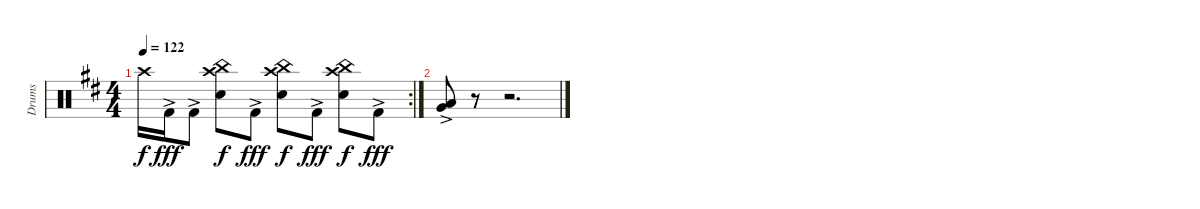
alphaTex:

\track ("Drums" "Drums") {instrument percussion}
\staff {score}
\articulation defaults
\rc 2
\ts (4 4)
\tempo 122
\clef neutral
\ks bminor "Crash high (hit)".16{dy f} "Kick (hit) 2"{ac}.16{dy fff} "Kick (hit) 2"{ac}.8
("Crash high (hit)" "China (hit)" "Snare (hit) 2").8{dy f} "Kick (hit) 2"{ac}.8{dy fff} ("Crash high (hit)" "China (hit)" "Snare (hit) 2").8{dy f} "Kick (hit) 2"{ac}.8{dy fff} ("Crash high (hit)" "China (hit)" "Snare (hit) 2").8{dy f} "Kick (hit) 2"{ac}.8{dy fff} |
("Very Low Tom (hit)"{ac} "Low Floor Tom (hit)"{ac}).8 r.8 r.2{d}
